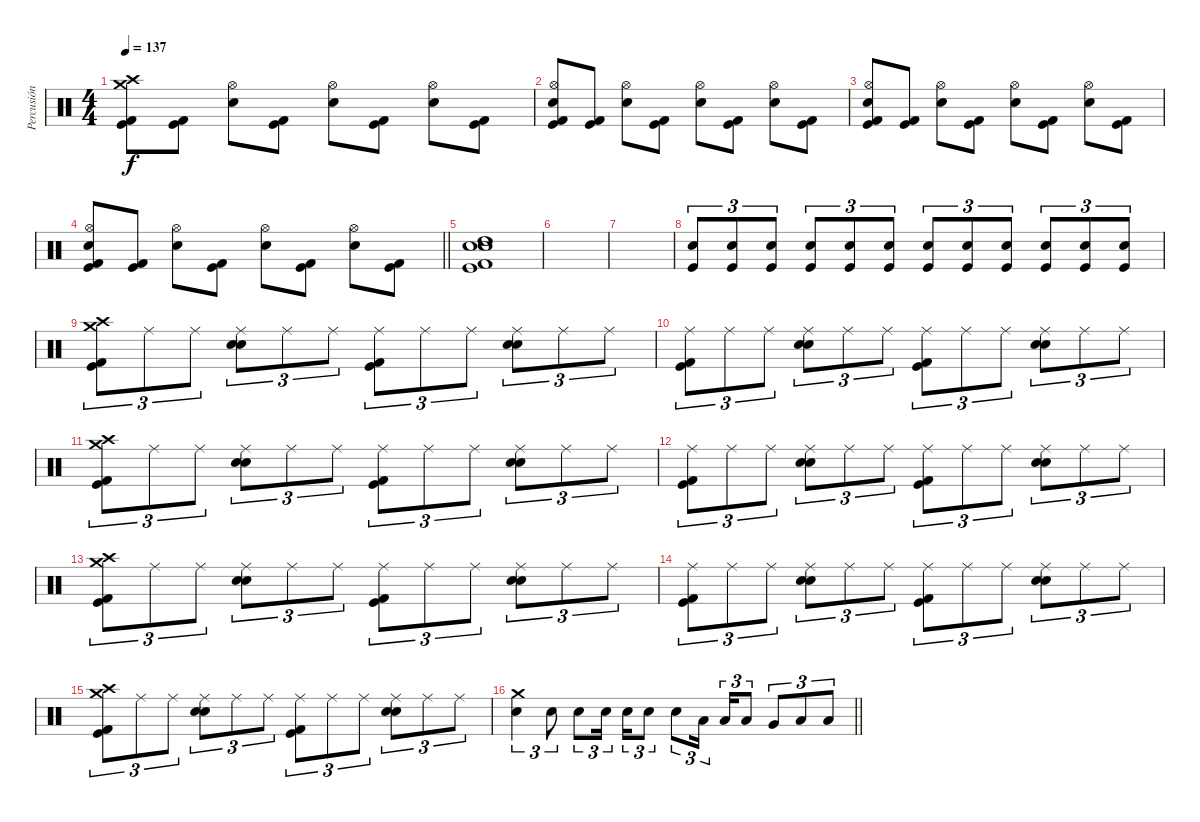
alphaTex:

\track ("Percusión" "Percusión") {instrument percussion}
\staff {score}
\articulation defaults
\ts (4 4)
\tempo 137
\clef neutral
\ks c
("Crash medium (hit)" "Crash high (hit)" "Kick (hit) 2" "Kick (hit)").8{dy f} ("Kick (hit)" "Kick (hit) 2").8 ("Hi-Hat (open)" "Electric Snare (hit)").8 ("Kick (hit)" "Kick (hit) 2").8 ("Hi-Hat (open)" "Electric Snare (hit)").8 ("Kick (hit)" "Kick (hit) 2").8 ("Hi-Hat (open)" "Electric Snare (hit)").8 ("Kick (hit) 2" "Kick (hit)").8 |
("Hi-Hat (open)" "Electric Snare (hit)" "Kick (hit) 2" "Kick (hit)").8 ("Kick (hit)" "Kick (hit) 2").8 ("Hi-Hat (open)" "Electric Snare (hit)").8 ("Kick (hit)" "Kick (hit) 2").8 ("Hi-Hat (open)" "Electric Snare (hit)").8 ("Kick (hit)" "Kick (hit) 2").8 ("Hi-Hat (open)" "Electric Snare (hit)").8 ("Kick (hit) 2" "Kick (hit)").8 |
("Hi-Hat (open)" "Electric Snare (hit)" "Kick (hit) 2" "Kick (hit)").8 ("Kick (hit)" "Kick (hit) 2").8 ("Hi-Hat (open)" "Electric Snare (hit)").8 ("Kick (hit)" "Kick (hit) 2").8 ("Hi-Hat (open)" "Electric Snare (hit)").8 ("Kick (hit)" "Kick (hit) 2").8 ("Hi-Hat (open)" "Electric Snare (hit)").8 ("Kick (hit) 2" "Kick (hit)").8 |
\barLineRight lightlight
("Hi-Hat (open)" "Electric Snare (hit)" "Kick (hit) 2" "Kick (hit)").8 ("Kick (hit)" "Kick (hit) 2").8 ("Hi-Hat (open)" "Electric Snare (hit)").8 ("Kick (hit)" "Kick (hit) 2").8 ("Hi-Hat (open)" "Electric Snare (hit)").8 ("Kick (hit)" "Kick (hit) 2").8 ("Hi-Hat (open)" "Electric Snare (hit)").8 ("Kick (hit) 2" "Kick (hit)").8 |
("High Tom (hit)" "High Tom (hit)" "Electric Snare (hit)" "Electric Snare (hit)" "Kick (hit) 2" "Kick (hit)").1 |
|
|
("Electric Snare (hit)" "Kick (hit)").8{tu (3 2)} ("Electric Snare (hit)" "Kick (hit)").8{tu (3 2)} ("Electric Snare (hit)" "Kick (hit)").8{tu (3 2)} ("Electric Snare (hit)" "Kick (hit)").8{tu (3 2)} ("Electric Snare (hit)" "Kick (hit)").8{tu (3 2)} ("Electric Snare (hit)" "Kick (hit)").8{tu (3 2)} ("Electric Snare (hit)" "Kick (hit)").8{tu (3 2)} ("Electric Snare (hit)" "Kick (hit)").8{tu (3 2)} ("Electric Snare (hit)" "Kick (hit)").8{tu (3 2)} ("Electric Snare (hit)" "Kick (hit)").8{tu (3 2)} ("Electric Snare (hit)" "Kick (hit)").8{tu (3 2)} ("Electric Snare (hit)" "Kick (hit)").8{tu (3 2)} |
("Crash medium (hit)" "Crash high (hit)" "Kick (hit) 2" "Kick (hit)").8{tu (3 2)} "Ride (middle)".8{tu (3 2)} "Ride (middle)".8{tu (3 2)} ("Ride (middle)" "Electric Snare (hit)" "Electric Snare (hit)").8{tu (3 2)} "Ride (middle)".8{tu (3 2)} "Ride (middle)".8{tu (3 2)} ("Ride (middle)" "Kick (hit) 2" "Kick (hit)").8{tu (3 2)} "Ride (middle)".8{tu (3 2)} "Ride (middle)".8{tu (3 2)} ("Ride (middle)" "Electric Snare (hit)" "Electric Snare (hit)").8{tu (3 2)} "Ride (middle)".8{tu (3 2)} "Ride (middle)".8{tu (3 2)} |
("Ride (middle)" "Kick (hit) 2" "Kick (hit)").8{tu (3 2)} "Ride (middle)".8{tu (3 2)} "Ride (middle)".8{tu (3 2)} ("Ride (middle)" "Electric Snare (hit)" "Electric Snare (hit)").8{tu (3 2)} "Ride (middle)".8{tu (3 2)} "Ride (middle)".8{tu (3 2)} ("Ride (middle)" "Kick (hit) 2" "Kick (hit)").8{tu (3 2)} "Ride (middle)".8{tu (3 2)} "Ride (middle)".8{tu (3 2)} ("Ride (middle)" "Electric Snare (hit)" "Electric Snare (hit)").8{tu (3 2)} "Ride (middle)".8{tu (3 2)} "Ride (middle)".8{tu (3 2)} |
("Crash medium (hit)" "Crash high (hit)" "Kick (hit) 2" "Kick (hit)").8{tu (3 2)} "Ride (middle)".8{tu (3 2)} "Ride (middle)".8{tu (3 2)} ("Ride (middle)" "Electric Snare (hit)" "Electric Snare (hit)").8{tu (3 2)} "Ride (middle)".8{tu (3 2)} "Ride (middle)".8{tu (3 2)} ("Ride (middle)" "Kick (hit) 2" "Kick (hit)").8{tu (3 2)} "Ride (middle)".8{tu (3 2)} "Ride (middle)".8{tu (3 2)} ("Ride (middle)" "Electric Snare (hit)" "Electric Snare (hit)").8{tu (3 2)} "Ride (middle)".8{tu (3 2)} "Ride (middle)".8{tu (3 2)} |
("Ride (middle)" "Kick (hit) 2" "Kick (hit)").8{tu (3 2)} "Ride (middle)".8{tu (3 2)} "Ride (middle)".8{tu (3 2)} ("Ride (middle)" "Electric Snare (hit)" "Electric Snare (hit)").8{tu (3 2)} "Ride (middle)".8{tu (3 2)} "Ride (middle)".8{tu (3 2)} ("Ride (middle)" "Kick (hit) 2" "Kick (hit)").8{tu (3 2)} "Ride (middle)".8{tu (3 2)} "Ride (middle)".8{tu (3 2)} ("Ride (middle)" "Electric Snare (hit)" "Electric Snare (hit)").8{tu (3 2)} "Ride (middle)".8{tu (3 2)} "Ride (middle)".8{tu (3 2)} |
("Crash medium (hit)" "Crash high (hit)" "Kick (hit) 2" "Kick (hit)").8{tu (3 2)} "Ride (middle)".8{tu (3 2)} "Ride (middle)".8{tu (3 2)} ("Ride (middle)" "Electric Snare (hit)" "Electric Snare (hit)").8{tu (3 2)} "Ride (middle)".8{tu (3 2)} "Ride (middle)".8{tu (3 2)} ("Ride (middle)" "Kick (hit) 2" "Kick (hit)").8{tu (3 2)} "Ride (middle)".8{tu (3 2)} "Ride (middle)".8{tu (3 2)} ("Ride (middle)" "Electric Snare (hit)" "Electric Snare (hit)").8{tu (3 2)} "Ride (middle)".8{tu (3 2)} "Ride (middle)".8{tu (3 2)} |
("Ride (middle)" "Kick (hit) 2" "Kick (hit)").8{tu (3 2)} "Ride (middle)".8{tu (3 2)} "Ride (middle)".8{tu (3 2)} ("Ride (middle)" "Electric Snare (hit)" "Electric Snare (hit)").8{tu (3 2)} "Ride (middle)".8{tu (3 2)} "Ride (middle)".8{tu (3 2)} ("Ride (middle)" "Kick (hit) 2" "Kick (hit)").8{tu (3 2)} "Ride (middle)".8{tu (3 2)} "Ride (middle)".8{tu (3 2)} ("Ride (middle)" "Electric Snare (hit)" "Electric Snare (hit)").8{tu (3 2)} "Ride (middle)".8{tu (3 2)} "Ride (middle)".8{tu (3 2)} |
("Crash medium (hit)" "Crash high (hit)" "Kick (hit) 2" "Kick (hit)").8{tu (3 2)} "Ride (middle)".8{tu (3 2)} "Ride (middle)".8{tu (3 2)} ("Ride (middle)" "Electric Snare (hit)" "Electric Snare (hit)").8{tu (3 2)} "Ride (middle)".8{tu (3 2)} "Ride (middle)".8{tu (3 2)} ("Ride (middle)" "Kick (hit) 2" "Kick (hit)").8{tu (3 2)} "Ride (middle)".8{tu (3 2)} "Ride (middle)".8{tu (3 2)} ("Ride (middle)" "Electric Snare (hit)" "Electric Snare (hit)").8{tu (3 2)} "Ride (middle)".8{tu (3 2)} "Ride (middle)".8{tu (3 2)} |
\barLineRight lightlight
("Crash medium (hit)" "Electric Snare (hit)").4{tu (3 2)} "Electric Snare (hit)".8{tu (3 2)} "Electric Snare (hit)".8{tu (3 2)} "Electric Snare (hit)".16{tu (3 2)} "Electric Snare (hit)".16{tu (3 2)} "Electric Snare (hit)".8{tu (3 2)} "Electric Snare (hit)".8{tu (3 2)} "Low Tom (hit)".16{tu (3 2)} "Low Tom (hit)".16{tu (3 2)} "Low Tom (hit)".8{tu (3 2)} "Very Low Tom (hit)".8{tu (3 2)} "Low Floor Tom (hit)".8{tu (3 2)} "Low Floor Tom (hit)".8{tu (3 2)}
